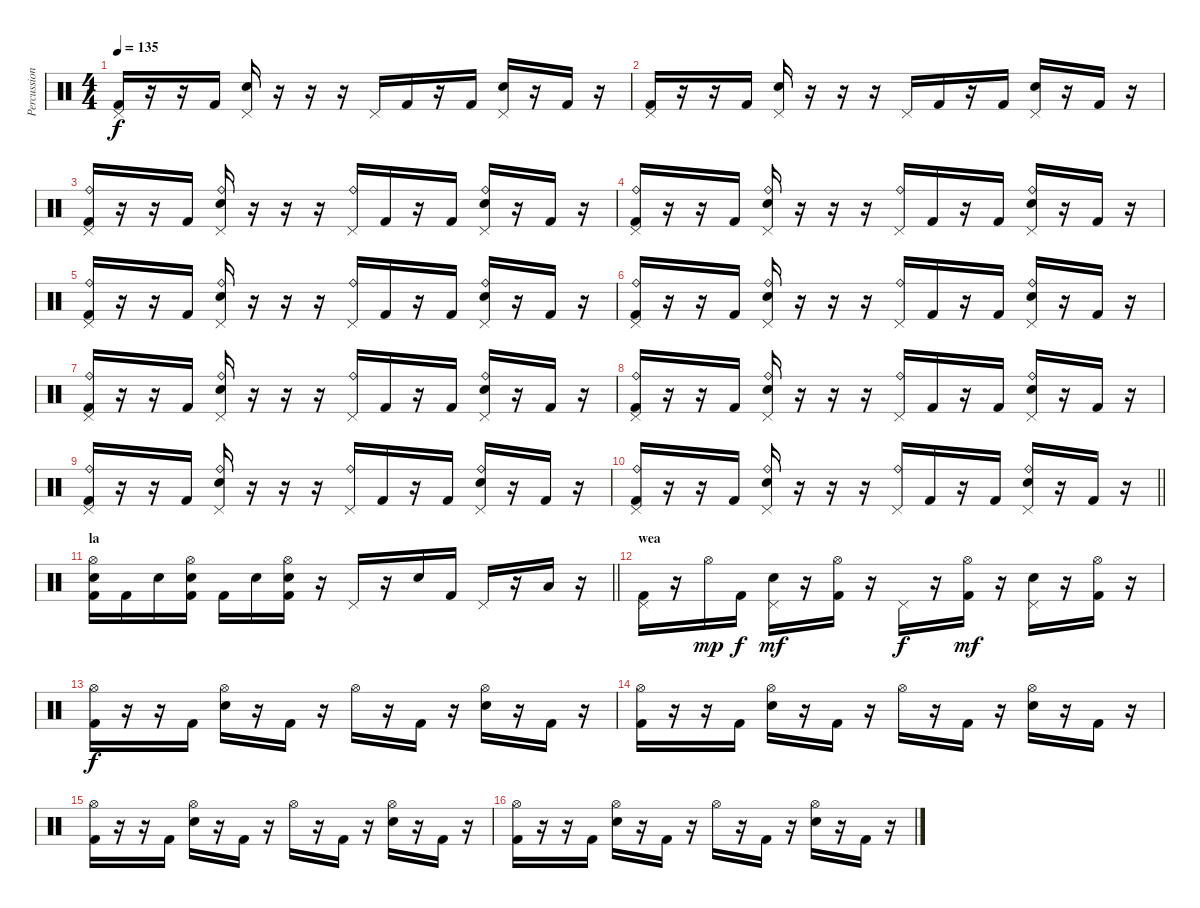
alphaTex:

\track ("Percussion" "Percussion") {instrument percussion}
\staff {score}
\articulation defaults
\ts (4 4)
\tempo 135
\clef neutral
\ks c
("Pedal Hi-Hat (hit)" "Kick (hit) 2").16{dy f} r.16 r.16 "Kick (hit) 2".16 ("Electric Snare (hit)" "Pedal Hi-Hat (hit)").16 r.16 r.16 r.16 "Pedal Hi-Hat (hit)".16 "Kick (hit) 2".16 r.16 "Kick (hit) 2".16 ("Electric Snare (hit)" "Pedal Hi-Hat (hit)").16 r.16 "Kick (hit) 2".16 r.16 |
("Pedal Hi-Hat (hit)" "Kick (hit) 2").16 r.16 r.16 "Kick (hit) 2".16 ("Electric Snare (hit)" "Pedal Hi-Hat (hit)").16 r.16 r.16 r.16 "Pedal Hi-Hat (hit)".16 "Kick (hit) 2".16 r.16 "Kick (hit) 2".16 ("Electric Snare (hit)" "Pedal Hi-Hat (hit)").16 r.16 "Kick (hit) 2".16 r.16 |
("Ride (bell)" "Pedal Hi-Hat (hit)" "Kick (hit) 2").16 r.16 r.16 "Kick (hit) 2".16 ("Ride (bell)" "Electric Snare (hit)" "Pedal Hi-Hat (hit)").16 r.16 r.16 r.16 ("Ride (bell)" "Pedal Hi-Hat (hit)").16 "Kick (hit) 2".16 r.16 "Kick (hit) 2".16 ("Ride (bell)" "Electric Snare (hit)" "Pedal Hi-Hat (hit)").16 r.16 "Kick (hit) 2".16 r.16 |
("Ride (bell)" "Pedal Hi-Hat (hit)" "Kick (hit) 2").16 r.16 r.16 "Kick (hit) 2".16 ("Ride (bell)" "Electric Snare (hit)" "Pedal Hi-Hat (hit)").16 r.16 r.16 r.16 ("Ride (bell)" "Pedal Hi-Hat (hit)").16 "Kick (hit) 2".16 r.16 "Kick (hit) 2".16 ("Ride (bell)" "Electric Snare (hit)" "Pedal Hi-Hat (hit)").16 r.16 "Kick (hit) 2".16 r.16 |
("Ride (bell)" "Pedal Hi-Hat (hit)" "Kick (hit) 2").16 r.16 r.16 "Kick (hit) 2".16 ("Ride (bell)" "Electric Snare (hit)" "Pedal Hi-Hat (hit)").16 r.16 r.16 r.16 ("Ride (bell)" "Pedal Hi-Hat (hit)").16 "Kick (hit) 2".16 r.16 "Kick (hit) 2".16 ("Ride (bell)" "Electric Snare (hit)" "Pedal Hi-Hat (hit)").16 r.16 "Kick (hit) 2".16 r.16 |
("Ride (bell)" "Pedal Hi-Hat (hit)" "Kick (hit) 2").16 r.16 r.16 "Kick (hit) 2".16 ("Ride (bell)" "Electric Snare (hit)" "Pedal Hi-Hat (hit)").16 r.16 r.16 r.16 ("Ride (bell)" "Pedal Hi-Hat (hit)").16 "Kick (hit) 2".16 r.16 "Kick (hit) 2".16 ("Ride (bell)" "Electric Snare (hit)" "Pedal Hi-Hat (hit)").16 r.16 "Kick (hit) 2".16 r.16 |
("Ride (bell)" "Pedal Hi-Hat (hit)" "Kick (hit) 2").16 r.16 r.16 "Kick (hit) 2".16 ("Ride (bell)" "Electric Snare (hit)" "Pedal Hi-Hat (hit)").16 r.16 r.16 r.16 ("Ride (bell)" "Pedal Hi-Hat (hit)").16 "Kick (hit) 2".16 r.16 "Kick (hit) 2".16 ("Ride (bell)" "Electric Snare (hit)" "Pedal Hi-Hat (hit)").16 r.16 "Kick (hit) 2".16 r.16 |
("Ride (bell)" "Pedal Hi-Hat (hit)" "Kick (hit) 2").16 r.16 r.16 "Kick (hit) 2".16 ("Ride (bell)" "Electric Snare (hit)" "Pedal Hi-Hat (hit)").16 r.16 r.16 r.16 ("Ride (bell)" "Pedal Hi-Hat (hit)").16 "Kick (hit) 2".16 r.16 "Kick (hit) 2".16 ("Ride (bell)" "Electric Snare (hit)" "Pedal Hi-Hat (hit)").16 r.16 "Kick (hit) 2".16 r.16 |
("Ride (bell)" "Pedal Hi-Hat (hit)" "Kick (hit) 2").16 r.16 r.16 "Kick (hit) 2".16 ("Ride (bell)" "Electric Snare (hit)" "Pedal Hi-Hat (hit)").16 r.16 r.16 r.16 ("Ride (bell)" "Pedal Hi-Hat (hit)").16 "Kick (hit) 2".16 r.16 "Kick (hit) 2".16 ("Ride (bell)" "Electric Snare (hit)" "Pedal Hi-Hat (hit)").16 r.16 "Kick (hit) 2".16 r.16 |
\barLineRight lightlight
("Ride (bell)" "Pedal Hi-Hat (hit)" "Kick (hit) 2").16 r.16 r.16 "Kick (hit) 2".16 ("Ride (bell)" "Electric Snare (hit)" "Pedal Hi-Hat (hit)").16 r.16 r.16 r.16 ("Ride (bell)" "Pedal Hi-Hat (hit)").16 "Kick (hit) 2".16 r.16 "Kick (hit) 2".16 ("Ride (bell)" "Electric Snare (hit)" "Pedal Hi-Hat (hit)").16 r.16 "Kick (hit) 2".16 r.16 |
\section ("" "la")
\barLineRight lightlight
("Hi-Hat (open)" "Electric Snare (hit)" "Kick (hit) 2").16 "Kick (hit) 2".16 "Electric Snare (hit)".16 ("Hi-Hat (open)" "Electric Snare (hit)" "Kick (hit) 2").16 "Kick (hit) 2".16 "Electric Snare (hit)".16 ("Hi-Hat (open)" "Electric Snare (hit)" "Kick (hit) 2").16 r.16 "Pedal Hi-Hat (hit)".16 r.16 "Electric Snare (hit)".16 "Kick (hit) 2".16 "Pedal Hi-Hat (hit)".16 r.16 "Low Tom (hit)".16 r.16 |
\section ("" "wea")
("Pedal Hi-Hat (hit)" "Kick (hit) 2").16 r.16 "Hi-Hat (open)".16{dy mp} "Kick (hit) 2".16{dy f} ("Pedal Hi-Hat (hit)" "Electric Snare (hit)").16{dy mf} r.16 ("Hi-Hat (open)" "Kick (hit) 2").16 r.16 "Pedal Hi-Hat (hit)".16{dy f} r.16 ("Hi-Hat (open)" "Kick (hit) 2").16{dy mf} r.16 ("Pedal Hi-Hat (hit)" "Electric Snare (hit)").16 r.16 ("Hi-Hat (open)" "Kick (hit) 2").16 r.16 |
("Hi-Hat (open)" "Kick (hit) 2").16{dy f} r.16 r.16 "Kick (hit) 2".16 ("Hi-Hat (open)" "Electric Snare (hit)").16 r.16 "Kick (hit) 2".16 r.16 "Hi-Hat (open)".16 r.16 "Kick (hit) 2".16 r.16 ("Hi-Hat (open)" "Electric Snare (hit)").16 r.16 "Kick (hit) 2".16 r.16 |
("Hi-Hat (open)" "Kick (hit) 2").16 r.16 r.16 "Kick (hit) 2".16 ("Hi-Hat (open)" "Electric Snare (hit)").16 r.16 "Kick (hit) 2".16 r.16 "Hi-Hat (open)".16 r.16 "Kick (hit) 2".16 r.16 ("Hi-Hat (open)" "Electric Snare (hit)").16 r.16 "Kick (hit) 2".16 r.16 |
("Hi-Hat (open)" "Kick (hit) 2").16 r.16 r.16 "Kick (hit) 2".16 ("Hi-Hat (open)" "Electric Snare (hit)").16 r.16 "Kick (hit) 2".16 r.16 "Hi-Hat (open)".16 r.16 "Kick (hit) 2".16 r.16 ("Hi-Hat (open)" "Electric Snare (hit)").16 r.16 "Kick (hit) 2".16 r.16 |
("Hi-Hat (open)" "Kick (hit) 2").16 r.16 r.16 "Kick (hit) 2".16 ("Hi-Hat (open)" "Electric Snare (hit)").16 r.16 "Kick (hit) 2".16 r.16 "Hi-Hat (open)".16 r.16 "Kick (hit) 2".16 r.16 ("Hi-Hat (open)" "Electric Snare (hit)").16 r.16 "Kick (hit) 2".16 r.16
